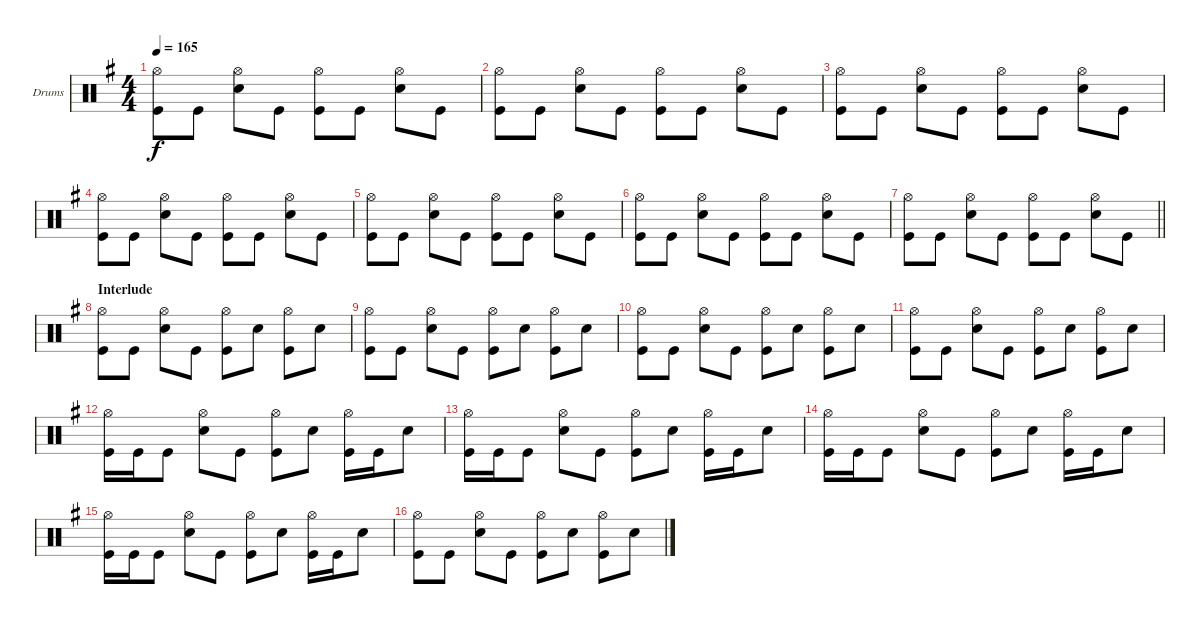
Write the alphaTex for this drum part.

\bracketExtendMode groupsimilarinstruments
\firstSystemTrackNameOrientation horizontal
\otherSystemsTrackNameOrientation horizontal
\track ("Drumkit" "Drums") {instrument percussion}
\staff {score}
\articulation defaults
\ts (4 4)
\tempo 165
\clef neutral
\ks eminor
("Hi-Hat (open)" "Kick (hit)").8{dy f} "Kick (hit)".8 ("Hi-Hat (open)" "Snare (hit) 2").8 "Kick (hit)".8 ("Hi-Hat (open)" "Kick (hit)").8 "Kick (hit)".8 ("Hi-Hat (open)" "Snare (hit) 2").8 "Kick (hit)".8 |
("Hi-Hat (open)" "Kick (hit)").8 "Kick (hit)".8 ("Hi-Hat (open)" "Snare (hit) 2").8 "Kick (hit)".8 ("Hi-Hat (open)" "Kick (hit)").8 "Kick (hit)".8 ("Hi-Hat (open)" "Snare (hit) 2").8 "Kick (hit)".8 |
("Hi-Hat (open)" "Kick (hit)").8 "Kick (hit)".8 ("Hi-Hat (open)" "Snare (hit) 2").8 "Kick (hit)".8 ("Hi-Hat (open)" "Kick (hit)").8 "Kick (hit)".8 ("Hi-Hat (open)" "Snare (hit) 2").8 "Kick (hit)".8 |
("Hi-Hat (open)" "Kick (hit)").8 "Kick (hit)".8 ("Hi-Hat (open)" "Snare (hit) 2").8 "Kick (hit)".8 ("Hi-Hat (open)" "Kick (hit)").8 "Kick (hit)".8 ("Hi-Hat (open)" "Snare (hit) 2").8 "Kick (hit)".8 |
("Hi-Hat (open)" "Kick (hit)").8 "Kick (hit)".8 ("Hi-Hat (open)" "Snare (hit) 2").8 "Kick (hit)".8 ("Hi-Hat (open)" "Kick (hit)").8 "Kick (hit)".8 ("Hi-Hat (open)" "Snare (hit) 2").8 "Kick (hit)".8 |
("Hi-Hat (open)" "Kick (hit)").8 "Kick (hit)".8 ("Hi-Hat (open)" "Snare (hit) 2").8 "Kick (hit)".8 ("Hi-Hat (open)" "Kick (hit)").8 "Kick (hit)".8 ("Hi-Hat (open)" "Snare (hit) 2").8 "Kick (hit)".8 |
\barLineRight lightlight
("Hi-Hat (open)" "Kick (hit)").8 "Kick (hit)".8 ("Hi-Hat (open)" "Snare (hit) 2").8 "Kick (hit)".8 ("Hi-Hat (open)" "Kick (hit)").8 "Kick (hit)".8 ("Hi-Hat (open)" "Snare (hit) 2").8 "Kick (hit)".8 |
\section ("" "Interlude")
("Hi-Hat (open)" "Kick (hit)").8 "Kick (hit)".8 ("Hi-Hat (open)" "Snare (hit) 2").8 "Kick (hit)".8 ("Hi-Hat (open)" "Kick (hit)").8 "Snare (hit) 2".8 ("Hi-Hat (open)" "Kick (hit)").8 "Snare (hit) 2".8 |
("Hi-Hat (open)" "Kick (hit)").8 "Kick (hit)".8 ("Hi-Hat (open)" "Snare (hit) 2").8 "Kick (hit)".8 ("Hi-Hat (open)" "Kick (hit)").8 "Snare (hit) 2".8 ("Hi-Hat (open)" "Kick (hit)").8 "Snare (hit) 2".8 |
("Hi-Hat (open)" "Kick (hit)").8 "Kick (hit)".8 ("Hi-Hat (open)" "Snare (hit) 2").8 "Kick (hit)".8 ("Hi-Hat (open)" "Kick (hit)").8 "Snare (hit) 2".8 ("Hi-Hat (open)" "Kick (hit)").8 "Snare (hit) 2".8 |
("Hi-Hat (open)" "Kick (hit)").8 "Kick (hit)".8 ("Hi-Hat (open)" "Snare (hit) 2").8 "Kick (hit)".8 ("Hi-Hat (open)" "Kick (hit)").8 "Snare (hit) 2".8 ("Hi-Hat (open)" "Kick (hit)").8 "Snare (hit) 2".8 |
("Hi-Hat (open)" "Kick (hit)").16 "Kick (hit)".16 "Kick (hit)".8 ("Hi-Hat (open)" "Snare (hit) 2").8 "Kick (hit)".8 ("Hi-Hat (open)" "Kick (hit)").8 "Snare (hit) 2".8 ("Hi-Hat (open)" "Kick (hit)").16 "Kick (hit)".16 "Snare (hit) 2".8 |
("Hi-Hat (open)" "Kick (hit)").16 "Kick (hit)".16 "Kick (hit)".8 ("Hi-Hat (open)" "Snare (hit) 2").8 "Kick (hit)".8 ("Hi-Hat (open)" "Kick (hit)").8 "Snare (hit) 2".8 ("Hi-Hat (open)" "Kick (hit)").16 "Kick (hit)".16 "Snare (hit) 2".8 |
("Hi-Hat (open)" "Kick (hit)").16 "Kick (hit)".16 "Kick (hit)".8 ("Hi-Hat (open)" "Snare (hit) 2").8 "Kick (hit)".8 ("Hi-Hat (open)" "Kick (hit)").8 "Snare (hit) 2".8 ("Hi-Hat (open)" "Kick (hit)").16 "Kick (hit)".16 "Snare (hit) 2".8 |
("Hi-Hat (open)" "Kick (hit)").16 "Kick (hit)".16 "Kick (hit)".8 ("Hi-Hat (open)" "Snare (hit) 2").8 "Kick (hit)".8 ("Hi-Hat (open)" "Kick (hit)").8 "Snare (hit) 2".8 ("Hi-Hat (open)" "Kick (hit)").16 "Kick (hit)".16 "Snare (hit) 2".8 |
("Hi-Hat (open)" "Kick (hit)").8 "Kick (hit)".8 ("Hi-Hat (open)" "Snare (hit) 2").8 "Kick (hit)".8 ("Hi-Hat (open)" "Kick (hit)").8 "Snare (hit) 2".8 ("Hi-Hat (open)" "Kick (hit)").8 "Snare (hit) 2".8
